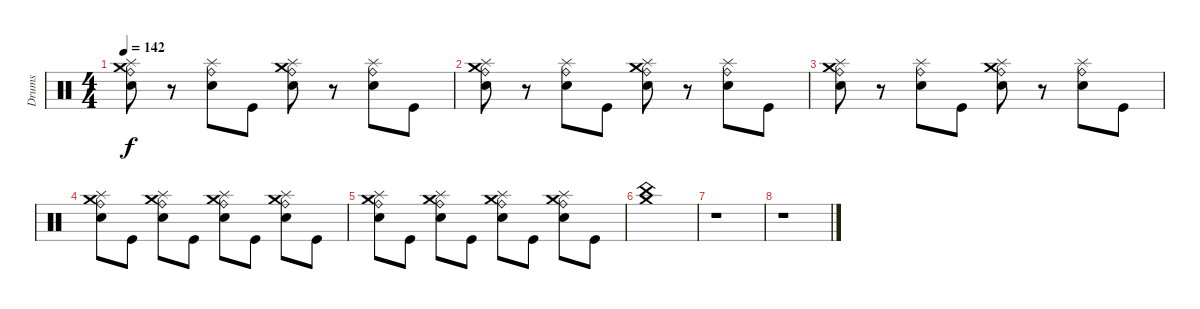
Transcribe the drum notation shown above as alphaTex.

\track ("Drums" "Drums") {instrument percussion}
\staff {score}
\articulation defaults
\ts (4 4)
\tempo 142
\clef neutral
\ks c
("Crash medium (hit)" "Ride (bell)" "Splash (hit)" "Electric Snare (hit)").8{dy f} r.8 ("Splash (hit)" "Ride (bell)" "Electric Snare (hit)").8 "Kick (hit)".8 ("Crash medium (hit)" "Electric Snare (hit)" "Splash (hit)" "Ride (bell)").8 r.8 ("Electric Snare (hit)" "Ride (bell)" "Splash (hit)").8 "Kick (hit)".8 |
("Crash medium (hit)" "Ride (bell)" "Splash (hit)" "Electric Snare (hit)").8 r.8 ("Splash (hit)" "Ride (bell)" "Electric Snare (hit)").8 "Kick (hit)".8 ("Crash medium (hit)" "Electric Snare (hit)" "Splash (hit)" "Ride (bell)").8 r.8 ("Electric Snare (hit)" "Ride (bell)" "Splash (hit)").8 "Kick (hit)".8 |
("Crash medium (hit)" "Ride (bell)" "Splash (hit)" "Electric Snare (hit)").8 r.8 ("Splash (hit)" "Ride (bell)" "Electric Snare (hit)").8 "Kick (hit)".8 ("Crash medium (hit)" "Electric Snare (hit)" "Splash (hit)" "Ride (bell)").8 r.8 ("Electric Snare (hit)" "Ride (bell)" "Splash (hit)").8 "Kick (hit)".8 |
("Crash medium (hit)" "Splash (hit)" "Ride (bell)" "Electric Snare (hit)").8 "Kick (hit)".8 ("Crash medium (hit)" "Splash (hit)" "Ride (bell)" "Electric Snare (hit)").8 "Kick (hit)".8 ("Crash medium (hit)" "Electric Snare (hit)" "Splash (hit)" "Ride (bell)").8 "Kick (hit)".8 ("Crash medium (hit)" "Electric Snare (hit)" "Ride (bell)" "Splash (hit)").8 "Kick (hit)".8 |
("Crash medium (hit)" "Splash (hit)" "Ride (bell)" "Electric Snare (hit)").8 "Kick (hit)".8 ("Crash medium (hit)" "Splash (hit)" "Ride (bell)" "Electric Snare (hit)").8 "Kick (hit)".8 ("Crash medium (hit)" "Electric Snare (hit)" "Splash (hit)" "Ride (bell)").8 "Kick (hit)".8 ("Crash medium (hit)" "Electric Snare (hit)" "Ride (bell)" "Splash (hit)").8 "Kick (hit)".8 |
("China (hit)" "Crash medium (hit)").1 |
r.1 |
r.1
